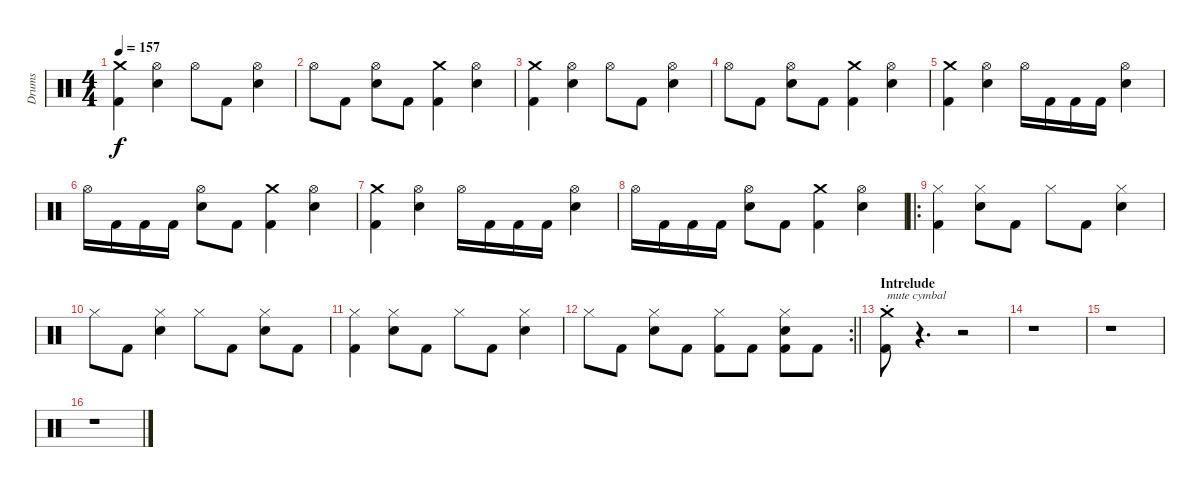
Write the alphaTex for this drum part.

\track ("Drums" "Drums") {instrument percussion}
\staff {score}
\articulation defaults
\ts (4 4)
\tempo 157
\clef neutral
\ks c
("Crash medium (hit)" "Kick (hit) 2").4{dy f} ("Hi-Hat (open)" "Electric Snare (hit)").4 "Hi-Hat (open)".8 "Kick (hit) 2".8 ("Hi-Hat (open)" "Electric Snare (hit)").4 |
"Hi-Hat (open)".8 "Kick (hit) 2".8 ("Hi-Hat (open)" "Electric Snare (hit)").8 "Kick (hit) 2".8 ("Crash medium (hit)" "Kick (hit) 2").4 ("Hi-Hat (open)" "Electric Snare (hit)").4 |
("Crash medium (hit)" "Kick (hit) 2").4 ("Hi-Hat (open)" "Electric Snare (hit)").4 "Hi-Hat (open)".8 "Kick (hit) 2".8 ("Hi-Hat (open)" "Electric Snare (hit)").4 |
"Hi-Hat (open)".8 "Kick (hit) 2".8 ("Hi-Hat (open)" "Electric Snare (hit)").8 "Kick (hit) 2".8 ("Crash medium (hit)" "Kick (hit) 2").4 ("Hi-Hat (open)" "Electric Snare (hit)").4 |
("Crash medium (hit)" "Kick (hit) 2").4 ("Hi-Hat (open)" "Electric Snare (hit)").4 "Hi-Hat (open)".16 "Kick (hit) 2".16 "Kick (hit) 2".16 "Kick (hit) 2".16 ("Hi-Hat (open)" "Electric Snare (hit)").4 |
"Hi-Hat (open)".16 "Kick (hit) 2".16 "Kick (hit) 2".16 "Kick (hit) 2".16 ("Hi-Hat (open)" "Electric Snare (hit)").8 "Kick (hit) 2".8 ("Crash medium (hit)" "Kick (hit) 2").4 ("Hi-Hat (open)" "Electric Snare (hit)").4 |
("Crash medium (hit)" "Kick (hit) 2").4 ("Hi-Hat (open)" "Electric Snare (hit)").4 "Hi-Hat (open)".16 "Kick (hit) 2".16 "Kick (hit) 2".16 "Kick (hit) 2".16 ("Hi-Hat (open)" "Electric Snare (hit)").4 |
"Hi-Hat (open)".16 "Kick (hit) 2".16 "Kick (hit) 2".16 "Kick (hit) 2".16 ("Hi-Hat (open)" "Electric Snare (hit)").8 "Kick (hit) 2".8 ("Crash medium (hit)" "Kick (hit) 2").4 ("Hi-Hat (open)" "Electric Snare (hit)").4 |
\ro
("Hi-Hat (closed)" "Kick (hit) 2").4 ("Hi-Hat (closed)" "Electric Snare (hit)").8 "Kick (hit) 2".8 "Hi-Hat (closed)".8 "Kick (hit) 2".8 ("Hi-Hat (closed)" "Electric Snare (hit)").4 |
"Hi-Hat (closed)".8 "Kick (hit) 2".8 ("Hi-Hat (closed)" "Electric Snare (hit)").4 "Hi-Hat (closed)".8 "Kick (hit) 2".8 ("Hi-Hat (closed)" "Electric Snare (hit)").8 "Kick (hit) 2".8 |
("Hi-Hat (closed)" "Kick (hit) 2").4 ("Hi-Hat (closed)" "Electric Snare (hit)").8 "Kick (hit) 2".8 "Hi-Hat (closed)".8 "Kick (hit) 2".8 ("Hi-Hat (closed)" "Electric Snare (hit)").4 |
\rc 2
\barLineRight lightlight "Hi-Hat (closed)".8 "Kick (hit) 2".8
("Hi-Hat (closed)" "Electric Snare (hit)").8 "Kick (hit) 2".8 ("Hi-Hat (closed)" "Kick (hit) 2").8 "Kick (hit) 2".8 ("Hi-Hat (closed)" "Electric Snare (hit)" "Kick (hit) 2").8 "Kick (hit) 2".8 |
\section ("" "Intrelude")
("Crash medium (hit)"{st} "Kick (hit) 2").8{txt "mute cymbal"} r.4{d volume 0} r.2 |
r.1 |
r.1 |
r.1
